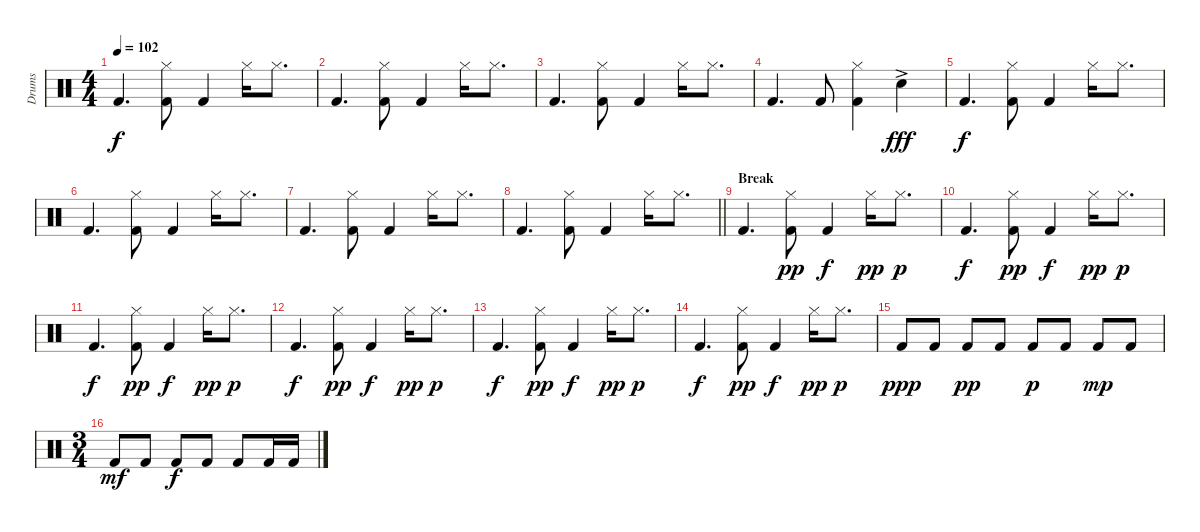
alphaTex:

\track ("Drums" "Drums") {instrument percussion}
\staff {score}
\articulation defaults
\ts (4 4)
\tempo 102
\clef neutral
\ks c "Kick (hit) 2".4{d dy f}
("Kick (hit) 2" "Hi-Hat (closed)").8 "Kick (hit) 2".4 "Hi-Hat (closed)".16 "Hi-Hat (closed)".8{d} |
"Kick (hit) 2".4{d} ("Kick (hit) 2" "Hi-Hat (closed)").8 "Kick (hit) 2".4 "Hi-Hat (closed)".16 "Hi-Hat (closed)".8{d} |
"Kick (hit) 2".4{d} ("Kick (hit) 2" "Hi-Hat (closed)").8 "Kick (hit) 2".4 "Hi-Hat (closed)".16 "Hi-Hat (closed)".8{d} |
"Kick (hit) 2".4{d} "Kick (hit) 2".8 ("Kick (hit) 2" "Hi-Hat (closed)").4 "Snare (hit) 2"{ac}.4{dy fff} |
"Kick (hit) 2".4{d dy f} ("Kick (hit) 2" "Hi-Hat (closed)").8 "Kick (hit) 2".4 "Hi-Hat (closed)".16 "Hi-Hat (closed)".8{d} |
"Kick (hit) 2".4{d} ("Kick (hit) 2" "Hi-Hat (closed)").8 "Kick (hit) 2".4 "Hi-Hat (closed)".16 "Hi-Hat (closed)".8{d} |
"Kick (hit) 2".4{d} ("Kick (hit) 2" "Hi-Hat (closed)").8 "Kick (hit) 2".4 "Hi-Hat (closed)".16 "Hi-Hat (closed)".8{d} |
\barLineRight lightlight "Kick (hit) 2".4{d}
("Kick (hit) 2" "Hi-Hat (closed)").8 "Kick (hit) 2".4 "Hi-Hat (closed)".16 "Hi-Hat (closed)".8{d} |
\section ("" "Break")
"Kick (hit) 2".4{d} ("Kick (hit) 2" "Hi-Hat (closed)").8{dy pp} "Kick (hit) 2".4{dy f} "Hi-Hat (closed)".16{dy pp} "Hi-Hat (closed)".8{d dy p} |
"Kick (hit) 2".4{d dy f} ("Kick (hit) 2" "Hi-Hat (closed)").8{dy pp} "Kick (hit) 2".4{dy f} "Hi-Hat (closed)".16{dy pp} "Hi-Hat (closed)".8{d dy p} |
"Kick (hit) 2".4{d dy f} ("Kick (hit) 2" "Hi-Hat (closed)").8{dy pp} "Kick (hit) 2".4{dy f} "Hi-Hat (closed)".16{dy pp} "Hi-Hat (closed)".8{d dy p} |
"Kick (hit) 2".4{d dy f} ("Kick (hit) 2" "Hi-Hat (closed)").8{dy pp} "Kick (hit) 2".4{dy f} "Hi-Hat (closed)".16{dy pp} "Hi-Hat (closed)".8{d dy p} |
"Kick (hit) 2".4{d dy f} ("Kick (hit) 2" "Hi-Hat (closed)").8{dy pp} "Kick (hit) 2".4{dy f} "Hi-Hat (closed)".16{dy pp} "Hi-Hat (closed)".8{d dy p} |
"Kick (hit) 2".4{d dy f} ("Kick (hit) 2" "Hi-Hat (closed)").8{dy pp} "Kick (hit) 2".4{dy f} "Hi-Hat (closed)".16{dy pp} "Hi-Hat (closed)".8{d dy p} |
"Kick (hit) 2".8{dy ppp} "Kick (hit) 2".8 "Kick (hit) 2".8{dy pp} "Kick (hit) 2".8 "Kick (hit) 2".8{dy p} "Kick (hit) 2".8 "Kick (hit) 2".8{dy mp} "Kick (hit) 2".8 |
\ts (3 4)
"Kick (hit) 2".8{dy mf} "Kick (hit) 2".8 "Kick (hit) 2".8{dy f} "Kick (hit) 2".8 "Kick (hit) 2".8 "Kick (hit) 2".16 "Kick (hit) 2".16
